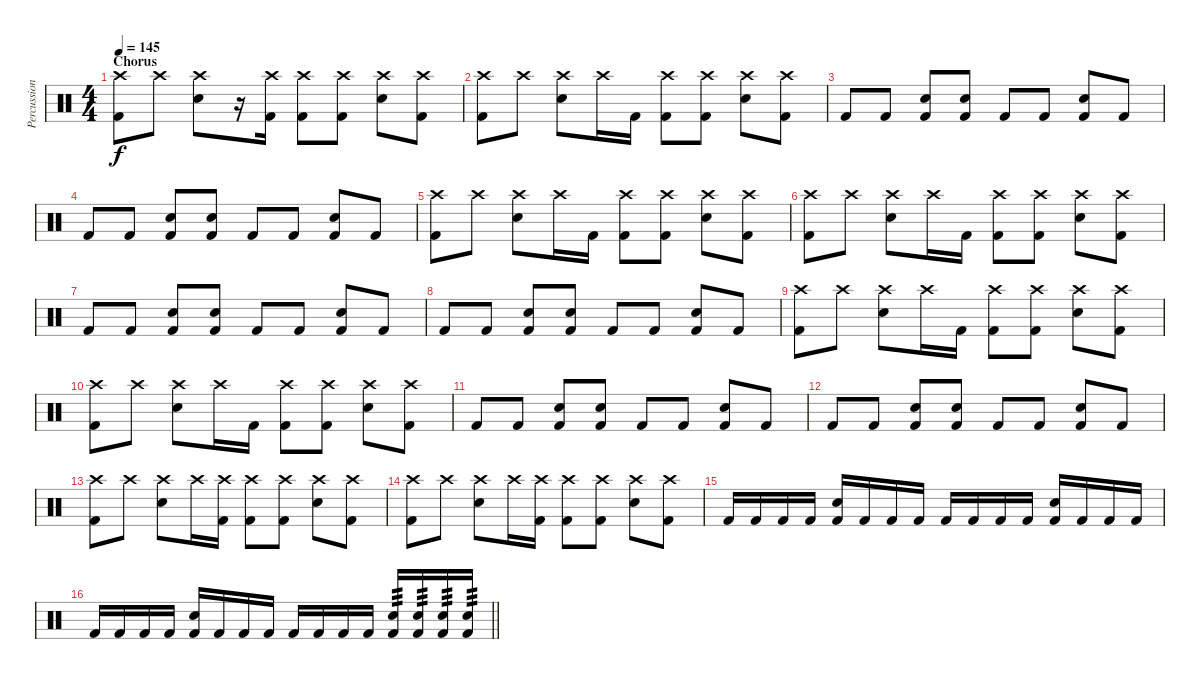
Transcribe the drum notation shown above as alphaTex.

\track ("Percussion" "Percussion") {instrument percussion}
\staff {score}
\articulation defaults
\ts (4 4)
\section ("" "Chorus")
\tempo 145
\clef neutral
\ks c
("Crash high (hit)" "Kick (hit) 2").8{dy f} "Crash high (hit)".8 ("Snare (hit) 2" "Crash high (hit)").8 r.16 ("Kick (hit) 2" "Crash high (hit)").16 ("Crash high (hit)" "Kick (hit) 2").8 ("Crash high (hit)" "Kick (hit) 2").8 ("Snare (hit) 2" "Crash high (hit)").8 ("Crash high (hit)" "Kick (hit) 2").8 |
("Crash high (hit)" "Kick (hit) 2").8 "Crash high (hit)".8 ("Snare (hit) 2" "Crash high (hit)").8 "Crash high (hit)".16 "Kick (hit) 2".16 ("Crash high (hit)" "Kick (hit) 2").8 ("Crash high (hit)" "Kick (hit) 2").8 ("Snare (hit) 2" "Crash high (hit)").8 ("Crash high (hit)" "Kick (hit) 2").8 |
"Kick (hit) 2".8 "Kick (hit) 2".8 ("Snare (hit) 2" "Kick (hit) 2").8 ("Snare (hit) 2" "Kick (hit) 2").8 "Kick (hit) 2".8 "Kick (hit) 2".8 ("Snare (hit) 2" "Kick (hit) 2").8 "Kick (hit) 2".8 |
"Kick (hit) 2".8 "Kick (hit) 2".8 ("Snare (hit) 2" "Kick (hit) 2").8 ("Snare (hit) 2" "Kick (hit) 2").8 "Kick (hit) 2".8 "Kick (hit) 2".8 ("Snare (hit) 2" "Kick (hit) 2").8 "Kick (hit) 2".8 |
("Crash high (hit)" "Kick (hit) 2").8 "Crash high (hit)".8 ("Snare (hit) 2" "Crash high (hit)").8 "Crash high (hit)".16 "Kick (hit) 2".16 ("Crash high (hit)" "Kick (hit) 2").8 ("Crash high (hit)" "Kick (hit) 2").8 ("Snare (hit) 2" "Crash high (hit)").8 ("Crash high (hit)" "Kick (hit) 2").8 |
("Crash high (hit)" "Kick (hit) 2").8 "Crash high (hit)".8 ("Snare (hit) 2" "Crash high (hit)").8 "Crash high (hit)".16 "Kick (hit) 2".16 ("Crash high (hit)" "Kick (hit) 2").8 ("Crash high (hit)" "Kick (hit) 2").8 ("Snare (hit) 2" "Crash high (hit)").8 ("Crash high (hit)" "Kick (hit) 2").8 |
"Kick (hit) 2".8 "Kick (hit) 2".8 ("Snare (hit) 2" "Kick (hit) 2").8 ("Snare (hit) 2" "Kick (hit) 2").8 "Kick (hit) 2".8 "Kick (hit) 2".8 ("Snare (hit) 2" "Kick (hit) 2").8 "Kick (hit) 2".8 |
"Kick (hit) 2".8 "Kick (hit) 2".8 ("Snare (hit) 2" "Kick (hit) 2").8 ("Snare (hit) 2" "Kick (hit) 2").8 "Kick (hit) 2".8 "Kick (hit) 2".8 ("Snare (hit) 2" "Kick (hit) 2").8 "Kick (hit) 2".8 |
("Crash high (hit)" "Kick (hit) 2").8 "Crash high (hit)".8 ("Snare (hit) 2" "Crash high (hit)").8 "Crash high (hit)".16 "Kick (hit) 2".16 ("Crash high (hit)" "Kick (hit) 2").8 ("Crash high (hit)" "Kick (hit) 2").8 ("Snare (hit) 2" "Crash high (hit)").8 ("Crash high (hit)" "Kick (hit) 2").8 |
("Crash high (hit)" "Kick (hit) 2").8 "Crash high (hit)".8 ("Snare (hit) 2" "Crash high (hit)").8 "Crash high (hit)".16 "Kick (hit) 2".16 ("Crash high (hit)" "Kick (hit) 2").8 ("Crash high (hit)" "Kick (hit) 2").8 ("Snare (hit) 2" "Crash high (hit)").8 ("Crash high (hit)" "Kick (hit) 2").8 |
"Kick (hit) 2".8 "Kick (hit) 2".8 ("Snare (hit) 2" "Kick (hit) 2").8 ("Snare (hit) 2" "Kick (hit) 2").8 "Kick (hit) 2".8 "Kick (hit) 2".8 ("Snare (hit) 2" "Kick (hit) 2").8 "Kick (hit) 2".8 |
"Kick (hit) 2".8 "Kick (hit) 2".8 ("Snare (hit) 2" "Kick (hit) 2").8 ("Snare (hit) 2" "Kick (hit) 2").8 "Kick (hit) 2".8 "Kick (hit) 2".8 ("Snare (hit) 2" "Kick (hit) 2").8 "Kick (hit) 2".8 |
("Crash high (hit)" "Kick (hit) 2").8 "Crash high (hit)".8 ("Snare (hit) 2" "Crash high (hit)").8 "Crash high (hit)".16 ("Kick (hit) 2" "Crash high (hit)").16 ("Crash high (hit)" "Kick (hit) 2").8 ("Crash high (hit)" "Kick (hit) 2").8 ("Snare (hit) 2" "Crash high (hit)").8 ("Crash high (hit)" "Kick (hit) 2").8 |
("Crash high (hit)" "Kick (hit) 2").8 "Crash high (hit)".8 ("Snare (hit) 2" "Crash high (hit)").8 "Crash high (hit)".16 ("Kick (hit) 2" "Crash high (hit)").16 ("Crash high (hit)" "Kick (hit) 2").8 ("Crash high (hit)" "Kick (hit) 2").8 ("Snare (hit) 2" "Crash high (hit)").8 ("Crash high (hit)" "Kick (hit) 2").8 |
"Kick (hit) 2".16 "Kick (hit) 2".16 "Kick (hit) 2".16 "Kick (hit) 2".16 ("Snare (hit) 2" "Kick (hit) 2").16 "Kick (hit) 2".16 "Kick (hit) 2".16 "Kick (hit) 2".16 "Kick (hit) 2".16 "Kick (hit) 2".16 "Kick (hit) 2".16 "Kick (hit) 2".16 ("Snare (hit) 2" "Kick (hit) 2").16 "Kick (hit) 2".16 "Kick (hit) 2".16 "Kick (hit) 2".16 |
\barLineRight lightlight "Kick (hit) 2".16 "Kick (hit) 2".16 "Kick (hit) 2".16 "Kick (hit) 2".16
("Snare (hit) 2" "Kick (hit) 2").16 "Kick (hit) 2".16 "Kick (hit) 2".16 "Kick (hit) 2".16 "Kick (hit) 2".16 "Kick (hit) 2".16 "Kick (hit) 2".16 "Kick (hit) 2".16 ("Snare (hit) 2" "Kick (hit) 2").16{tp 3} ("Snare (hit) 2" "Kick (hit) 2").16{tp 3} ("Snare (hit) 2" "Kick (hit) 2").16{tp 3} ("Snare (hit) 2" "Kick (hit) 2").16{tp 3}
